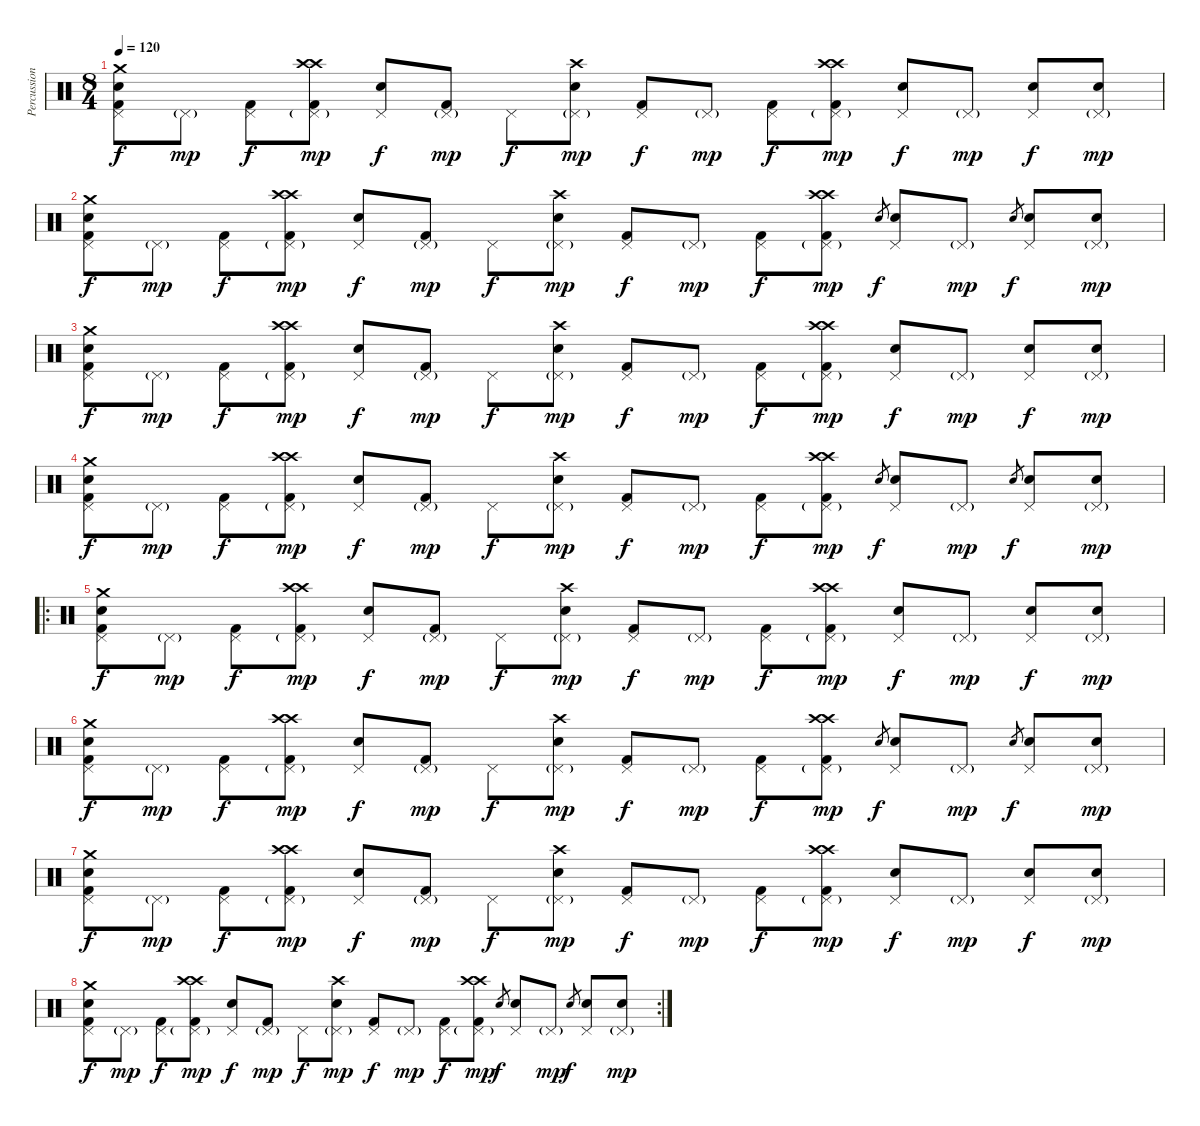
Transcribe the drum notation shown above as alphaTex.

\track ("Percussion" "Percussion") {instrument percussion}
\staff {score}
\articulation defaults
\ts (8 4)
\tempo 120
\clef neutral
\ks c
("Crash medium (hit)" "Electric Snare (hit)" "Kick (hit) 2" "Pedal Hi-Hat (hit)").8{dy f} "Pedal Hi-Hat (hit)"{g}.8{dy mp} ("Kick (hit) 2" "Pedal Hi-Hat (hit)").8{dy f} ("Crash high (hit)" "Crash high (hit)" "Kick (hit) 2" "Pedal Hi-Hat (hit)"{g}).8{dy mp} ("Electric Snare (hit)" "Pedal Hi-Hat (hit)").8{dy f} ("Kick (hit) 2" "Pedal Hi-Hat (hit)"{g}).8{dy mp} "Pedal Hi-Hat (hit)".8{dy f} ("Crash high (hit)" "Electric Snare (hit)" "Pedal Hi-Hat (hit)"{g}).8{dy mp} ("Kick (hit) 2" "Pedal Hi-Hat (hit)").8{dy f} "Pedal Hi-Hat (hit)"{g}.8{dy mp} ("Kick (hit) 2" "Pedal Hi-Hat (hit)").8{dy f} ("Crash high (hit)" "Crash high (hit)" "Kick (hit) 2" "Pedal Hi-Hat (hit)"{g}).8{dy mp} ("Electric Snare (hit)" "Pedal Hi-Hat (hit)").8{dy f} "Pedal Hi-Hat (hit)"{g}.8{dy mp} ("Electric Snare (hit)" "Pedal Hi-Hat (hit)").8{dy f} ("Electric Snare (hit)" "Pedal Hi-Hat (hit)"{g}).8{dy mp} |
("Crash medium (hit)" "Electric Snare (hit)" "Kick (hit) 2" "Pedal Hi-Hat (hit)").8{dy f} "Pedal Hi-Hat (hit)"{g}.8{dy mp} ("Kick (hit) 2" "Pedal Hi-Hat (hit)").8{dy f} ("Crash high (hit)" "Crash high (hit)" "Kick (hit) 2" "Pedal Hi-Hat (hit)"{g}).8{dy mp} ("Electric Snare (hit)" "Pedal Hi-Hat (hit)").8{dy f} ("Kick (hit) 2" "Pedal Hi-Hat (hit)"{g}).8{dy mp} "Pedal Hi-Hat (hit)".8{dy f} ("Crash high (hit)" "Electric Snare (hit)" "Pedal Hi-Hat (hit)"{g}).8{dy mp} ("Kick (hit) 2" "Pedal Hi-Hat (hit)").8{dy f} "Pedal Hi-Hat (hit)"{g}.8{dy mp} ("Kick (hit) 2" "Pedal Hi-Hat (hit)").8{dy f} ("Crash high (hit)" "Crash high (hit)" "Kick (hit) 2" "Pedal Hi-Hat (hit)"{g}).8{dy mp} "Electric Snare (hit)".8{gr dy f} ("Electric Snare (hit)" "Pedal Hi-Hat (hit)").8 "Pedal Hi-Hat (hit)"{g}.8{dy mp} "Electric Snare (hit)".8{gr dy f} ("Electric Snare (hit)" "Pedal Hi-Hat (hit)").8 ("Electric Snare (hit)" "Pedal Hi-Hat (hit)"{g}).8{dy mp} |
("Crash medium (hit)" "Electric Snare (hit)" "Kick (hit) 2" "Pedal Hi-Hat (hit)").8{dy f} "Pedal Hi-Hat (hit)"{g}.8{dy mp} ("Kick (hit) 2" "Pedal Hi-Hat (hit)").8{dy f} ("Crash high (hit)" "Crash high (hit)" "Kick (hit) 2" "Pedal Hi-Hat (hit)"{g}).8{dy mp} ("Electric Snare (hit)" "Pedal Hi-Hat (hit)").8{dy f} ("Kick (hit) 2" "Pedal Hi-Hat (hit)"{g}).8{dy mp} "Pedal Hi-Hat (hit)".8{dy f} ("Crash high (hit)" "Electric Snare (hit)" "Pedal Hi-Hat (hit)"{g}).8{dy mp} ("Kick (hit) 2" "Pedal Hi-Hat (hit)").8{dy f} "Pedal Hi-Hat (hit)"{g}.8{dy mp} ("Kick (hit) 2" "Pedal Hi-Hat (hit)").8{dy f} ("Crash high (hit)" "Crash high (hit)" "Kick (hit) 2" "Pedal Hi-Hat (hit)"{g}).8{dy mp} ("Electric Snare (hit)" "Pedal Hi-Hat (hit)").8{dy f} "Pedal Hi-Hat (hit)"{g}.8{dy mp} ("Electric Snare (hit)" "Pedal Hi-Hat (hit)").8{dy f} ("Electric Snare (hit)" "Pedal Hi-Hat (hit)"{g}).8{dy mp} |
("Crash medium (hit)" "Electric Snare (hit)" "Kick (hit) 2" "Pedal Hi-Hat (hit)").8{dy f} "Pedal Hi-Hat (hit)"{g}.8{dy mp} ("Kick (hit) 2" "Pedal Hi-Hat (hit)").8{dy f} ("Crash high (hit)" "Crash high (hit)" "Kick (hit) 2" "Pedal Hi-Hat (hit)"{g}).8{dy mp} ("Electric Snare (hit)" "Pedal Hi-Hat (hit)").8{dy f} ("Kick (hit) 2" "Pedal Hi-Hat (hit)"{g}).8{dy mp} "Pedal Hi-Hat (hit)".8{dy f} ("Crash high (hit)" "Electric Snare (hit)" "Pedal Hi-Hat (hit)"{g}).8{dy mp} ("Kick (hit) 2" "Pedal Hi-Hat (hit)").8{dy f} "Pedal Hi-Hat (hit)"{g}.8{dy mp} ("Kick (hit) 2" "Pedal Hi-Hat (hit)").8{dy f} ("Crash high (hit)" "Crash high (hit)" "Kick (hit) 2" "Pedal Hi-Hat (hit)"{g}).8{dy mp} "Electric Snare (hit)".8{gr dy f} ("Electric Snare (hit)" "Pedal Hi-Hat (hit)").8 "Pedal Hi-Hat (hit)"{g}.8{dy mp} "Electric Snare (hit)".8{gr dy f} ("Electric Snare (hit)" "Pedal Hi-Hat (hit)").8 ("Electric Snare (hit)" "Pedal Hi-Hat (hit)"{g}).8{dy mp} |
\ro
("Crash medium (hit)" "Electric Snare (hit)" "Kick (hit) 2" "Pedal Hi-Hat (hit)").8{dy f} "Pedal Hi-Hat (hit)"{g}.8{dy mp} ("Kick (hit) 2" "Pedal Hi-Hat (hit)").8{dy f} ("Crash high (hit)" "Crash high (hit)" "Kick (hit) 2" "Pedal Hi-Hat (hit)"{g}).8{dy mp} ("Electric Snare (hit)" "Pedal Hi-Hat (hit)").8{dy f} ("Kick (hit) 2" "Pedal Hi-Hat (hit)"{g}).8{dy mp} "Pedal Hi-Hat (hit)".8{dy f} ("Crash high (hit)" "Electric Snare (hit)" "Pedal Hi-Hat (hit)"{g}).8{dy mp} ("Kick (hit) 2" "Pedal Hi-Hat (hit)").8{dy f} "Pedal Hi-Hat (hit)"{g}.8{dy mp} ("Kick (hit) 2" "Pedal Hi-Hat (hit)").8{dy f} ("Crash high (hit)" "Crash high (hit)" "Kick (hit) 2" "Pedal Hi-Hat (hit)"{g}).8{dy mp} ("Electric Snare (hit)" "Pedal Hi-Hat (hit)").8{dy f} "Pedal Hi-Hat (hit)"{g}.8{dy mp} ("Electric Snare (hit)" "Pedal Hi-Hat (hit)").8{dy f} ("Electric Snare (hit)" "Pedal Hi-Hat (hit)"{g}).8{dy mp} |
("Crash medium (hit)" "Electric Snare (hit)" "Kick (hit) 2" "Pedal Hi-Hat (hit)").8{dy f} "Pedal Hi-Hat (hit)"{g}.8{dy mp} ("Kick (hit) 2" "Pedal Hi-Hat (hit)").8{dy f} ("Crash high (hit)" "Crash high (hit)" "Kick (hit) 2" "Pedal Hi-Hat (hit)"{g}).8{dy mp} ("Electric Snare (hit)" "Pedal Hi-Hat (hit)").8{dy f} ("Kick (hit) 2" "Pedal Hi-Hat (hit)"{g}).8{dy mp} "Pedal Hi-Hat (hit)".8{dy f} ("Crash high (hit)" "Electric Snare (hit)" "Pedal Hi-Hat (hit)"{g}).8{dy mp} ("Kick (hit) 2" "Pedal Hi-Hat (hit)").8{dy f} "Pedal Hi-Hat (hit)"{g}.8{dy mp} ("Kick (hit) 2" "Pedal Hi-Hat (hit)").8{dy f} ("Crash high (hit)" "Crash high (hit)" "Kick (hit) 2" "Pedal Hi-Hat (hit)"{g}).8{dy mp} "Electric Snare (hit)".8{gr dy f} ("Electric Snare (hit)" "Pedal Hi-Hat (hit)").8 "Pedal Hi-Hat (hit)"{g}.8{dy mp} "Electric Snare (hit)".8{gr dy f} ("Electric Snare (hit)" "Pedal Hi-Hat (hit)").8 ("Electric Snare (hit)" "Pedal Hi-Hat (hit)"{g}).8{dy mp} |
("Crash medium (hit)" "Electric Snare (hit)" "Kick (hit) 2" "Pedal Hi-Hat (hit)").8{dy f} "Pedal Hi-Hat (hit)"{g}.8{dy mp} ("Kick (hit) 2" "Pedal Hi-Hat (hit)").8{dy f} ("Crash high (hit)" "Crash high (hit)" "Kick (hit) 2" "Pedal Hi-Hat (hit)"{g}).8{dy mp} ("Electric Snare (hit)" "Pedal Hi-Hat (hit)").8{dy f} ("Kick (hit) 2" "Pedal Hi-Hat (hit)"{g}).8{dy mp} "Pedal Hi-Hat (hit)".8{dy f} ("Crash high (hit)" "Electric Snare (hit)" "Pedal Hi-Hat (hit)"{g}).8{dy mp} ("Kick (hit) 2" "Pedal Hi-Hat (hit)").8{dy f} "Pedal Hi-Hat (hit)"{g}.8{dy mp} ("Kick (hit) 2" "Pedal Hi-Hat (hit)").8{dy f} ("Crash high (hit)" "Crash high (hit)" "Kick (hit) 2" "Pedal Hi-Hat (hit)"{g}).8{dy mp} ("Electric Snare (hit)" "Pedal Hi-Hat (hit)").8{dy f} "Pedal Hi-Hat (hit)"{g}.8{dy mp} ("Electric Snare (hit)" "Pedal Hi-Hat (hit)").8{dy f} ("Electric Snare (hit)" "Pedal Hi-Hat (hit)"{g}).8{dy mp} |
\rc 2
("Crash medium (hit)" "Electric Snare (hit)" "Kick (hit) 2" "Pedal Hi-Hat (hit)").8{dy f} "Pedal Hi-Hat (hit)"{g}.8{dy mp} ("Kick (hit) 2" "Pedal Hi-Hat (hit)").8{dy f} ("Crash high (hit)" "Crash high (hit)" "Kick (hit) 2" "Pedal Hi-Hat (hit)"{g}).8{dy mp} ("Electric Snare (hit)" "Pedal Hi-Hat (hit)").8{dy f} ("Kick (hit) 2" "Pedal Hi-Hat (hit)"{g}).8{dy mp} "Pedal Hi-Hat (hit)".8{dy f} ("Crash high (hit)" "Electric Snare (hit)" "Pedal Hi-Hat (hit)"{g}).8{dy mp} ("Kick (hit) 2" "Pedal Hi-Hat (hit)").8{dy f} "Pedal Hi-Hat (hit)"{g}.8{dy mp} ("Kick (hit) 2" "Pedal Hi-Hat (hit)").8{dy f} ("Crash high (hit)" "Crash high (hit)" "Kick (hit) 2" "Pedal Hi-Hat (hit)"{g}).8{dy mp} "Electric Snare (hit)".8{gr dy f} ("Electric Snare (hit)" "Pedal Hi-Hat (hit)").8 "Pedal Hi-Hat (hit)"{g}.8{dy mp} "Electric Snare (hit)".8{gr dy f} ("Electric Snare (hit)" "Pedal Hi-Hat (hit)").8 ("Electric Snare (hit)" "Pedal Hi-Hat (hit)"{g}).8{dy mp}
